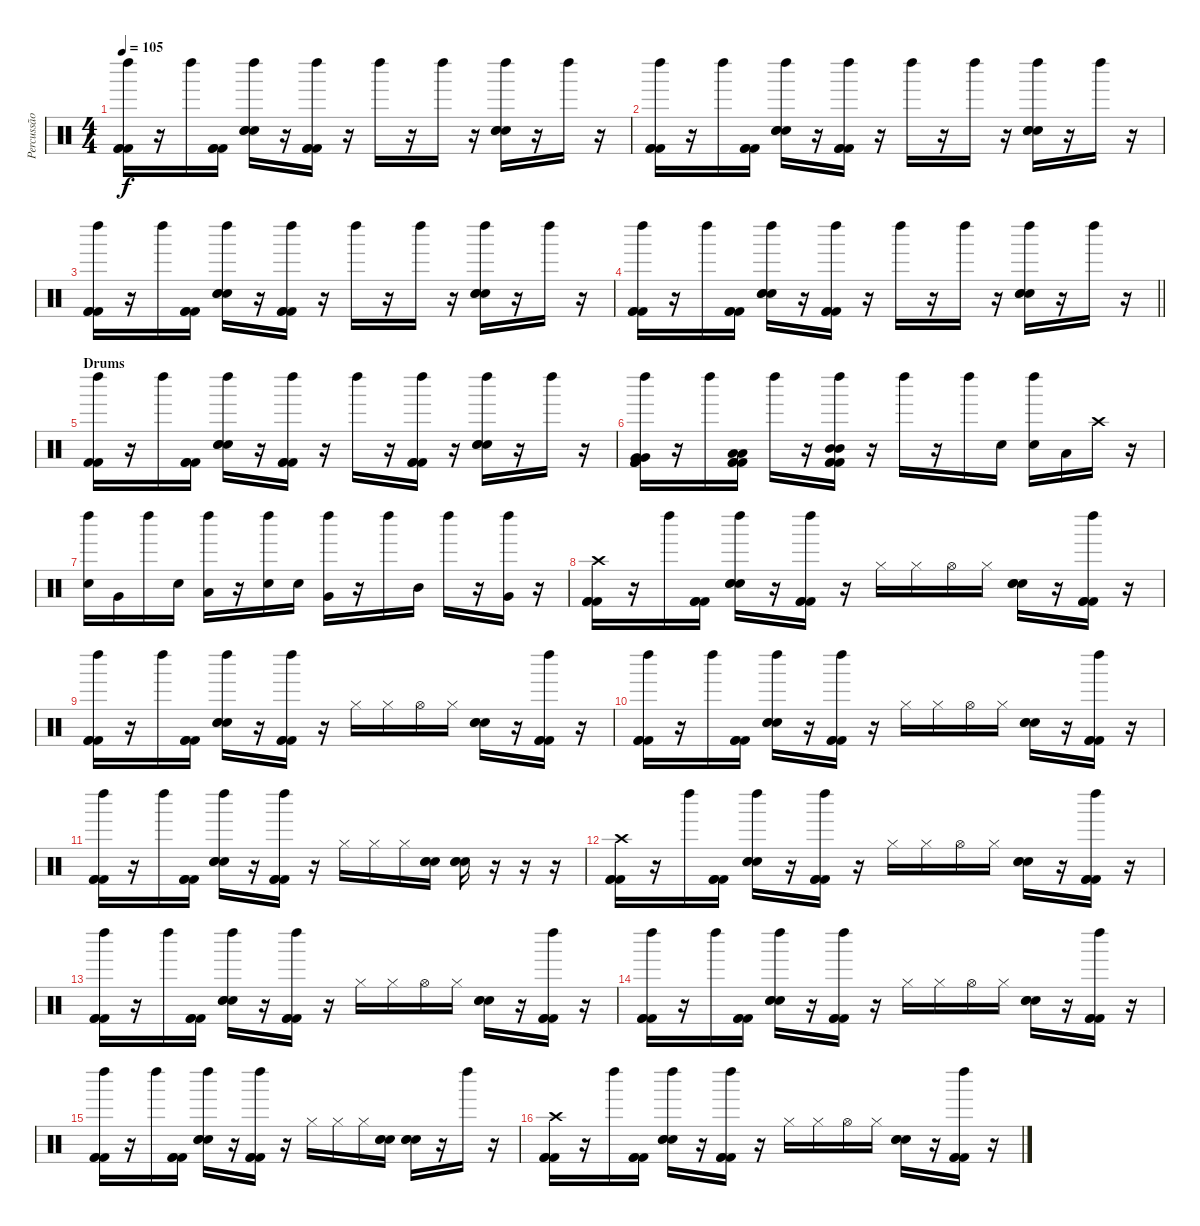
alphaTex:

\track ("Percussão" "Percussão") {instrument percussion}
\staff {score}
\articulation defaults
\ts (4 4)
\tempo 105
\clef neutral
\ks c
("Left Maraca (hit)" "Kick (hit) 2" "Kick (hit) 2" "Kick (hit) 2").16{dy f} r.16 "Left Maraca (hit)".16 ("Kick (hit) 2" "Kick (hit) 2" "Kick (hit) 2").16 ("Left Maraca (hit)" "Hand Clap (hit)" "Hand Clap (hit)" "Hand Clap (hit)").16 r.16 ("Left Maraca (hit)" "Kick (hit) 2" "Kick (hit) 2" "Kick (hit) 2").16 r.16 "Left Maraca (hit)".16 r.16 "Left Maraca (hit)".16 r.16 ("Left Maraca (hit)" "Hand Clap (hit)" "Hand Clap (hit)" "Hand Clap (hit)").16 r.16 "Left Maraca (hit)".16 r.16 |
("Left Maraca (hit)" "Kick (hit) 2" "Kick (hit) 2" "Kick (hit) 2").16 r.16 "Left Maraca (hit)".16 ("Kick (hit) 2" "Kick (hit) 2" "Kick (hit) 2").16 ("Left Maraca (hit)" "Hand Clap (hit)" "Hand Clap (hit)" "Hand Clap (hit)").16 r.16 ("Left Maraca (hit)" "Kick (hit) 2" "Kick (hit) 2" "Kick (hit) 2").16 r.16 "Left Maraca (hit)".16 r.16 "Left Maraca (hit)".16 r.16 ("Left Maraca (hit)" "Hand Clap (hit)" "Hand Clap (hit)" "Hand Clap (hit)").16 r.16 "Left Maraca (hit)".16 r.16 |
("Left Maraca (hit)" "Kick (hit) 2" "Kick (hit) 2" "Kick (hit) 2").16 r.16 "Left Maraca (hit)".16 ("Kick (hit) 2" "Kick (hit) 2" "Kick (hit) 2").16 ("Left Maraca (hit)" "Hand Clap (hit)" "Hand Clap (hit)" "Hand Clap (hit)").16 r.16 ("Left Maraca (hit)" "Kick (hit) 2" "Kick (hit) 2" "Kick (hit) 2").16 r.16 "Left Maraca (hit)".16 r.16 "Left Maraca (hit)".16 r.16 ("Left Maraca (hit)" "Hand Clap (hit)" "Hand Clap (hit)" "Hand Clap (hit)").16 r.16 "Left Maraca (hit)".16 r.16 |
\barLineRight lightlight
("Left Maraca (hit)" "Kick (hit) 2" "Kick (hit) 2" "Kick (hit) 2").16 r.16 "Left Maraca (hit)".16 ("Kick (hit) 2" "Kick (hit) 2" "Kick (hit) 2").16 ("Left Maraca (hit)" "Hand Clap (hit)" "Hand Clap (hit)" "Hand Clap (hit)").16 r.16 ("Left Maraca (hit)" "Kick (hit) 2" "Kick (hit) 2" "Kick (hit) 2").16 r.16 "Left Maraca (hit)".16 r.16 "Left Maraca (hit)".16 r.16 ("Left Maraca (hit)" "Hand Clap (hit)" "Hand Clap (hit)" "Hand Clap (hit)").16 r.16 "Left Maraca (hit)".16 r.16 |
\section ("" "Drums")
("Left Maraca (hit)" "Kick (hit) 2" "Kick (hit) 2").16 r.16 "Left Maraca (hit)".16 ("Kick (hit) 2" "Kick (hit) 2" "Kick (hit) 2").16 ("Left Maraca (hit)" "Hand Clap (hit)" "Hand Clap (hit)" "Hand Clap (hit)").16 r.16 ("Left Maraca (hit)" "Kick (hit) 2" "Kick (hit) 2" "Kick (hit) 2").16 r.16 "Left Maraca (hit)".16 r.16 ("Left Maraca (hit)" "Kick (hit) 2" "Kick (hit) 2" "Kick (hit) 2").16 r.16 ("Left Maraca (hit)" "Electric Snare (hit)" "Electric Snare (hit)" "Electric Snare (hit)").16 r.16 "Left Maraca (hit)".16 r.16 |
("Left Maraca (hit)" "Very Low Tom (hit)" "Very Low Tom (hit)" "Kick (hit) 2" "Kick (hit) 2" "Kick (hit) 2").16 r.16 "Left Maraca (hit)".16 ("Low Tom (hit)" "Low Tom (hit)" "Kick (hit) 2" "Kick (hit) 2" "Kick (hit) 2").16 "Left Maraca (hit)".16 r.16 ("Left Maraca (hit)" "Mid Tom (hit)" "Mid Tom (hit)" "Kick (hit) 2" "Kick (hit) 2" "Kick (hit) 2").16 r.16 "Left Maraca (hit)".16 r.16 "Left Maraca (hit)".16 "Electric Snare (hit)".16 ("Left Maraca (hit)" "Electric Snare (hit)").16 "Low Tom (hit)".16 "Crash high (hit)".16 r.16 |
("Left Maraca (hit)" "Electric Snare (hit)").16 "Very Low Tom (hit)".16 "Left Maraca (hit)".16 "Electric Snare (hit)".16 ("Left Maraca (hit)" "Low Floor Tom (hit)").16 r.16 ("Left Maraca (hit)" "Electric Snare (hit)").16 "Electric Snare (hit)".16 ("Left Maraca (hit)" "Very Low Tom (hit)").16 r.16 "Left Maraca (hit)".16 "Mid Tom (hit)".16 "Left Maraca (hit)".16 r.16 ("Left Maraca (hit)" "Very Low Tom (hit)").16 r.16 |
("Crash high (hit)" "Kick (hit) 2" "Kick (hit) 2" "Kick (hit) 2").16 r.16 "Left Maraca (hit)".16 ("Kick (hit) 2" "Kick (hit) 2" "Kick (hit) 2").16 ("Left Maraca (hit)" "Electric Snare (hit)" "Electric Snare (hit)" "Electric Snare (hit)").16 r.16 ("Left Maraca (hit)" "Kick (hit) 2" "Kick (hit) 2" "Kick (hit) 2").16 r.16 "Hi-Hat (closed)".16 "Hi-Hat (closed)".16 "Hi-Hat (open)".16 "Hi-Hat (closed)".16 ("Electric Snare (hit)" "Electric Snare (hit)" "Electric Snare (hit)").16 r.16 ("Left Maraca (hit)" "Kick (hit) 2" "Kick (hit) 2" "Kick (hit) 2").16 r.16 |
("Left Maraca (hit)" "Kick (hit) 2" "Kick (hit) 2" "Kick (hit) 2").16 r.16 "Left Maraca (hit)".16 ("Kick (hit) 2" "Kick (hit) 2" "Kick (hit) 2").16 ("Left Maraca (hit)" "Electric Snare (hit)" "Electric Snare (hit)" "Electric Snare (hit)").16 r.16 ("Left Maraca (hit)" "Kick (hit) 2" "Kick (hit) 2" "Kick (hit) 2").16 r.16 "Hi-Hat (closed)".16 "Hi-Hat (closed)".16 "Hi-Hat (open)".16 "Hi-Hat (closed)".16 ("Electric Snare (hit)" "Electric Snare (hit)" "Electric Snare (hit)").16 r.16 ("Left Maraca (hit)" "Kick (hit) 2" "Kick (hit) 2" "Kick (hit) 2").16 r.16 |
("Left Maraca (hit)" "Kick (hit) 2" "Kick (hit) 2" "Kick (hit) 2").16 r.16 "Left Maraca (hit)".16 ("Kick (hit) 2" "Kick (hit) 2" "Kick (hit) 2").16 ("Left Maraca (hit)" "Electric Snare (hit)" "Electric Snare (hit)" "Electric Snare (hit)").16 r.16 ("Left Maraca (hit)" "Kick (hit) 2" "Kick (hit) 2" "Kick (hit) 2").16 r.16 "Hi-Hat (closed)".16 "Hi-Hat (closed)".16 "Hi-Hat (open)".16 "Hi-Hat (closed)".16 ("Electric Snare (hit)" "Electric Snare (hit)" "Electric Snare (hit)").16 r.16 ("Left Maraca (hit)" "Kick (hit) 2" "Kick (hit) 2" "Kick (hit) 2").16 r.16 |
("Left Maraca (hit)" "Kick (hit) 2" "Kick (hit) 2" "Kick (hit) 2").16 r.16 "Left Maraca (hit)".16 ("Kick (hit) 2" "Kick (hit) 2" "Kick (hit) 2").16 ("Left Maraca (hit)" "Electric Snare (hit)" "Electric Snare (hit)" "Electric Snare (hit)").16 r.16 ("Left Maraca (hit)" "Kick (hit) 2" "Kick (hit) 2" "Kick (hit) 2").16 r.16 "Hi-Hat (closed)".16 "Hi-Hat (closed)".16 "Hi-Hat (closed)".16 ("Electric Snare (hit)" "Electric Snare (hit)" "Electric Snare (hit)").16 ("Electric Snare (hit)" "Electric Snare (hit)" "Electric Snare (hit)").16 r.16 r.16 r.16 |
("Crash high (hit)" "Kick (hit) 2" "Kick (hit) 2" "Kick (hit) 2").16 r.16 "Left Maraca (hit)".16 ("Kick (hit) 2" "Kick (hit) 2" "Kick (hit) 2").16 ("Left Maraca (hit)" "Electric Snare (hit)" "Electric Snare (hit)" "Electric Snare (hit)").16 r.16 ("Left Maraca (hit)" "Kick (hit) 2" "Kick (hit) 2" "Kick (hit) 2").16 r.16 "Hi-Hat (closed)".16 "Hi-Hat (closed)".16 "Hi-Hat (open)".16 "Hi-Hat (closed)".16 ("Electric Snare (hit)" "Electric Snare (hit)" "Electric Snare (hit)").16 r.16 ("Left Maraca (hit)" "Kick (hit) 2" "Kick (hit) 2" "Kick (hit) 2").16 r.16 |
("Left Maraca (hit)" "Kick (hit) 2" "Kick (hit) 2" "Kick (hit) 2").16 r.16 "Left Maraca (hit)".16 ("Kick (hit) 2" "Kick (hit) 2" "Kick (hit) 2").16 ("Left Maraca (hit)" "Electric Snare (hit)" "Electric Snare (hit)" "Electric Snare (hit)").16 r.16 ("Left Maraca (hit)" "Kick (hit) 2" "Kick (hit) 2" "Kick (hit) 2").16 r.16 "Hi-Hat (closed)".16 "Hi-Hat (closed)".16 "Hi-Hat (open)".16 "Hi-Hat (closed)".16 ("Electric Snare (hit)" "Electric Snare (hit)" "Electric Snare (hit)").16 r.16 ("Left Maraca (hit)" "Kick (hit) 2" "Kick (hit) 2" "Kick (hit) 2").16 r.16 |
("Left Maraca (hit)" "Kick (hit) 2" "Kick (hit) 2" "Kick (hit) 2").16 r.16 "Left Maraca (hit)".16 ("Kick (hit) 2" "Kick (hit) 2" "Kick (hit) 2").16 ("Left Maraca (hit)" "Electric Snare (hit)" "Electric Snare (hit)" "Electric Snare (hit)").16 r.16 ("Left Maraca (hit)" "Kick (hit) 2" "Kick (hit) 2" "Kick (hit) 2").16 r.16 "Hi-Hat (closed)".16 "Hi-Hat (closed)".16 "Hi-Hat (open)".16 "Hi-Hat (closed)".16 ("Electric Snare (hit)" "Electric Snare (hit)" "Electric Snare (hit)").16 r.16 ("Left Maraca (hit)" "Kick (hit) 2" "Kick (hit) 2" "Kick (hit) 2").16 r.16 |
("Left Maraca (hit)" "Kick (hit) 2" "Kick (hit) 2" "Kick (hit) 2").16 r.16 "Left Maraca (hit)".16 ("Kick (hit) 2" "Kick (hit) 2" "Kick (hit) 2").16 ("Left Maraca (hit)" "Electric Snare (hit)" "Electric Snare (hit)" "Electric Snare (hit)").16 r.16 ("Left Maraca (hit)" "Kick (hit) 2" "Kick (hit) 2" "Kick (hit) 2").16 r.16 "Hi-Hat (closed)".16 "Hi-Hat (closed)".16 "Hi-Hat (closed)".16 ("Electric Snare (hit)" "Electric Snare (hit)" "Electric Snare (hit)").16 ("Electric Snare (hit)" "Electric Snare (hit)" "Electric Snare (hit)").16 r.16 "Left Maraca (hit)".16 r.16 |
("Crash high (hit)" "Kick (hit) 2" "Kick (hit) 2" "Kick (hit) 2").16 r.16 "Left Maraca (hit)".16 ("Kick (hit) 2" "Kick (hit) 2" "Kick (hit) 2").16 ("Left Maraca (hit)" "Electric Snare (hit)" "Electric Snare (hit)" "Electric Snare (hit)").16 r.16 ("Left Maraca (hit)" "Kick (hit) 2" "Kick (hit) 2" "Kick (hit) 2").16 r.16 "Hi-Hat (closed)".16 "Hi-Hat (closed)".16 "Hi-Hat (open)".16 "Hi-Hat (closed)".16 ("Electric Snare (hit)" "Electric Snare (hit)" "Electric Snare (hit)").16 r.16 ("Left Maraca (hit)" "Kick (hit) 2" "Kick (hit) 2" "Kick (hit) 2").16 r.16
